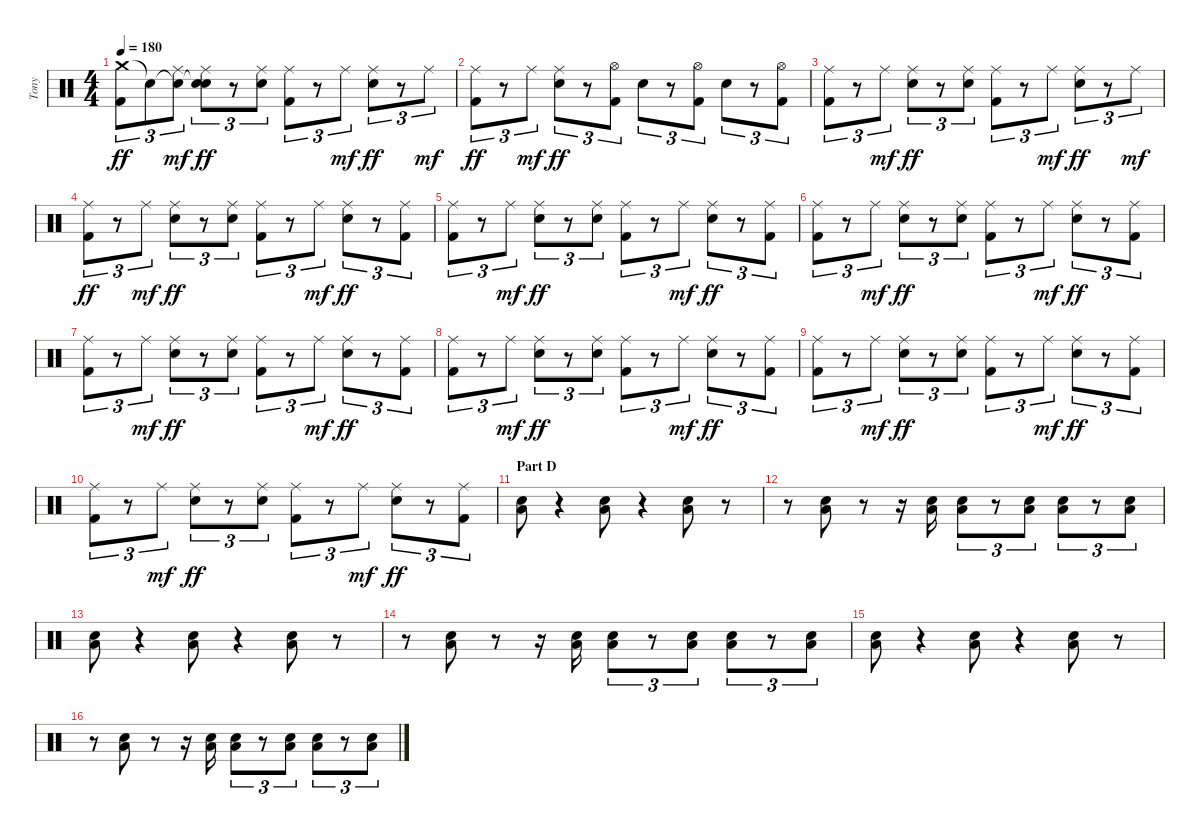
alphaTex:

\track ("Tony" "Tony") {instrument percussion}
\staff {score}
\articulation defaults
\ts (4 4)
\tempo 180
\clef neutral
\ks c
("Crash medium (hit)" "Kick (hit) 2").8{tu (3 2) dy ff} "Snare (hit)"{t}.8{tu (3 2)} ("Snare (hit)"{t} "Ride (middle)").8{tu (3 2) dy mf} ("Snare (hit)"{t} "Ride (middle)" "Electric Snare (hit)").8{tu (3 2) dy ff} r.8{tu (3 2)} ("Ride (middle)" "Electric Snare (hit)").8{tu (3 2)} ("Ride (middle)" "Kick (hit) 2").8{tu (3 2)} r.8{tu (3 2)} "Ride (middle)".8{tu (3 2) dy mf} ("Ride (middle)" "Electric Snare (hit)").8{tu (3 2) dy ff} r.8{tu (3 2)} "Ride (middle)".8{tu (3 2) dy mf} |
("Ride (middle)" "Kick (hit) 2").8{tu (3 2) dy ff} r.8{tu (3 2)} "Ride (middle)".8{tu (3 2) dy mf} ("Ride (middle)" "Electric Snare (hit)").8{tu (3 2) dy ff} r.8{tu (3 2)} ("Hi-Hat (open)" "Kick (hit) 2").8{tu (3 2)} "Electric Snare (hit)".8{tu (3 2)} r.8{tu (3 2)} ("Hi-Hat (open)" "Kick (hit) 2").8{tu (3 2)} "Electric Snare (hit)".8{tu (3 2)} r.8{tu (3 2)} ("Hi-Hat (open)" "Kick (hit) 2").8{tu (3 2)} |
("Ride (middle)" "Kick (hit) 2").8{tu (3 2)} r.8{tu (3 2)} "Ride (middle)".8{tu (3 2) dy mf} ("Ride (middle)" "Electric Snare (hit)").8{tu (3 2) dy ff} r.8{tu (3 2)} ("Ride (middle)" "Electric Snare (hit)").8{tu (3 2)} ("Ride (middle)" "Kick (hit) 2").8{tu (3 2)} r.8{tu (3 2)} "Ride (middle)".8{tu (3 2) dy mf} ("Ride (middle)" "Electric Snare (hit)").8{tu (3 2) dy ff} r.8{tu (3 2)} "Ride (middle)".8{tu (3 2) dy mf} |
("Ride (middle)" "Kick (hit) 2").8{tu (3 2) dy ff} r.8{tu (3 2)} "Ride (middle)".8{tu (3 2) dy mf} ("Ride (middle)" "Electric Snare (hit)").8{tu (3 2) dy ff} r.8{tu (3 2)} ("Ride (middle)" "Electric Snare (hit)").8{tu (3 2)} ("Ride (middle)" "Kick (hit) 2").8{tu (3 2)} r.8{tu (3 2)} "Ride (middle)".8{tu (3 2) dy mf} ("Ride (middle)" "Electric Snare (hit)").8{tu (3 2) dy ff} r.8{tu (3 2)} ("Ride (middle)" "Kick (hit) 2").8{tu (3 2)} |
("Ride (middle)" "Kick (hit) 2").8{tu (3 2)} r.8{tu (3 2)} "Ride (middle)".8{tu (3 2) dy mf} ("Ride (middle)" "Electric Snare (hit)").8{tu (3 2) dy ff} r.8{tu (3 2)} ("Ride (middle)" "Electric Snare (hit)").8{tu (3 2)} ("Ride (middle)" "Kick (hit) 2").8{tu (3 2)} r.8{tu (3 2)} "Ride (middle)".8{tu (3 2) dy mf} ("Ride (middle)" "Electric Snare (hit)").8{tu (3 2) dy ff} r.8{tu (3 2)} ("Ride (middle)" "Kick (hit) 2").8{tu (3 2)} |
("Ride (middle)" "Kick (hit) 2").8{tu (3 2)} r.8{tu (3 2)} "Ride (middle)".8{tu (3 2) dy mf} ("Ride (middle)" "Electric Snare (hit)").8{tu (3 2) dy ff} r.8{tu (3 2)} ("Ride (middle)" "Electric Snare (hit)").8{tu (3 2)} ("Ride (middle)" "Kick (hit) 2").8{tu (3 2)} r.8{tu (3 2)} "Ride (middle)".8{tu (3 2) dy mf} ("Ride (middle)" "Electric Snare (hit)").8{tu (3 2) dy ff} r.8{tu (3 2)} ("Ride (middle)" "Kick (hit) 2").8{tu (3 2)} |
("Ride (middle)" "Kick (hit) 2").8{tu (3 2)} r.8{tu (3 2)} "Ride (middle)".8{tu (3 2) dy mf} ("Ride (middle)" "Electric Snare (hit)").8{tu (3 2) dy ff} r.8{tu (3 2)} ("Ride (middle)" "Electric Snare (hit)").8{tu (3 2)} ("Ride (middle)" "Kick (hit) 2").8{tu (3 2)} r.8{tu (3 2)} "Ride (middle)".8{tu (3 2) dy mf} ("Ride (middle)" "Electric Snare (hit)").8{tu (3 2) dy ff} r.8{tu (3 2)} ("Ride (middle)" "Kick (hit) 2").8{tu (3 2)} |
("Ride (middle)" "Kick (hit) 2").8{tu (3 2)} r.8{tu (3 2)} "Ride (middle)".8{tu (3 2) dy mf} ("Ride (middle)" "Electric Snare (hit)").8{tu (3 2) dy ff} r.8{tu (3 2)} ("Ride (middle)" "Electric Snare (hit)").8{tu (3 2)} ("Ride (middle)" "Kick (hit) 2").8{tu (3 2)} r.8{tu (3 2)} "Ride (middle)".8{tu (3 2) dy mf} ("Ride (middle)" "Electric Snare (hit)").8{tu (3 2) dy ff} r.8{tu (3 2)} ("Ride (middle)" "Kick (hit) 2").8{tu (3 2)} |
("Ride (middle)" "Kick (hit) 2").8{tu (3 2)} r.8{tu (3 2)} "Ride (middle)".8{tu (3 2) dy mf} ("Ride (middle)" "Electric Snare (hit)").8{tu (3 2) dy ff} r.8{tu (3 2)} ("Ride (middle)" "Electric Snare (hit)").8{tu (3 2)} ("Ride (middle)" "Kick (hit) 2").8{tu (3 2)} r.8{tu (3 2)} "Ride (middle)".8{tu (3 2) dy mf} ("Ride (middle)" "Electric Snare (hit)").8{tu (3 2) dy ff} r.8{tu (3 2)} ("Ride (middle)" "Kick (hit) 2").8{tu (3 2)} |
("Ride (middle)" "Kick (hit) 2").8{tu (3 2)} r.8{tu (3 2)} "Ride (middle)".8{tu (3 2) dy mf} ("Ride (middle)" "Electric Snare (hit)").8{tu (3 2) dy ff} r.8{tu (3 2)} ("Ride (middle)" "Electric Snare (hit)").8{tu (3 2)} ("Ride (middle)" "Kick (hit) 2").8{tu (3 2)} r.8{tu (3 2)} "Ride (middle)".8{tu (3 2) dy mf} ("Ride (middle)" "Electric Snare (hit)").8{tu (3 2) dy ff} r.8{tu (3 2)} ("Ride (middle)" "Kick (hit) 2").8{tu (3 2)} |
\section ("" "Part D")
("Low Floor Tom (hit)" "Electric Snare (hit)").8 r.4 ("Low Floor Tom (hit)" "Electric Snare (hit)").8 r.4 ("Low Floor Tom (hit)" "Electric Snare (hit)").8 r.8 |
r.8 ("Low Floor Tom (hit)" "Electric Snare (hit)").8 r.8 r.16 ("Low Floor Tom (hit)" "Electric Snare (hit)").16 ("Low Floor Tom (hit)" "Electric Snare (hit)").8{tu (3 2)} r.8{tu (3 2)} ("Low Floor Tom (hit)" "Electric Snare (hit)").8{tu (3 2)} ("Low Floor Tom (hit)" "Electric Snare (hit)").8{tu (3 2)} r.8{tu (3 2)} ("Low Floor Tom (hit)" "Electric Snare (hit)").8{tu (3 2)} |
("Low Floor Tom (hit)" "Electric Snare (hit)").8 r.4 ("Low Floor Tom (hit)" "Electric Snare (hit)").8 r.4 ("Low Floor Tom (hit)" "Electric Snare (hit)").8 r.8 |
r.8 ("Low Floor Tom (hit)" "Electric Snare (hit)").8 r.8 r.16 ("Low Floor Tom (hit)" "Electric Snare (hit)").16 ("Low Floor Tom (hit)" "Electric Snare (hit)").8{tu (3 2)} r.8{tu (3 2)} ("Low Floor Tom (hit)" "Electric Snare (hit)").8{tu (3 2)} ("Low Floor Tom (hit)" "Electric Snare (hit)").8{tu (3 2)} r.8{tu (3 2)} ("Low Floor Tom (hit)" "Electric Snare (hit)").8{tu (3 2)} |
("Low Floor Tom (hit)" "Electric Snare (hit)").8 r.4 ("Low Floor Tom (hit)" "Electric Snare (hit)").8 r.4 ("Low Floor Tom (hit)" "Electric Snare (hit)").8 r.8 |
r.8 ("Low Floor Tom (hit)" "Electric Snare (hit)").8 r.8 r.16 ("Low Floor Tom (hit)" "Electric Snare (hit)").16 ("Low Floor Tom (hit)" "Electric Snare (hit)").8{tu (3 2)} r.8{tu (3 2)} ("Low Floor Tom (hit)" "Electric Snare (hit)").8{tu (3 2)} ("Low Floor Tom (hit)" "Electric Snare (hit)").8{tu (3 2)} r.8{tu (3 2)} ("Low Floor Tom (hit)" "Electric Snare (hit)").8{tu (3 2)}
